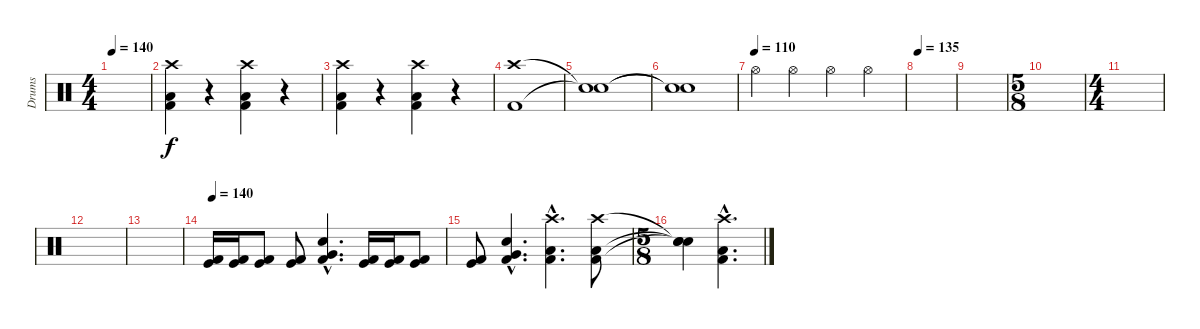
\track ("Drums" "Drums") {instrument percussion}
\staff {score}
\articulation defaults
\ts (4 4)
\tempo 140
\clef neutral
\ks c
|
("Crash high (hit)" "Low Tom (hit)" "Kick (hit) 2").4 r.4 ("Crash high (hit)" "Low Tom (hit)" "Kick (hit) 2").4 r.4 |
("Crash high (hit)" "Low Tom (hit)" "Kick (hit) 2").4 r.4 ("Crash high (hit)" "Low Tom (hit)" "Kick (hit) 2").4 r.4 |
("Crash high (hit)" "Kick (hit) 2").1 |
("Snare (hit)"{t} "Snare (hit)"{t}).1 |
("Snare (hit)"{t} "Snare (hit)"{t}).1 |
\tempo (110)
"Hi-Hat (open)".4 "Hi-Hat (open)".4 "Hi-Hat (open)".4 "Hi-Hat (open)".4 |
\tempo 135
|
|
\ts (5 8)
|
\ts (4 4)
|
|
|
\tempo 135
\tempo 140
("Kick (hit)" "Kick (hit) 2").16 ("Kick (hit)" "Kick (hit) 2").16 ("Kick (hit)" "Kick (hit) 2").8 ("Kick (hit)" "Kick (hit) 2").8 ("Very Low Tom (hit)"{hac} "Electric Snare (hit)"{hac} "Kick (hit) 2"{hac}).4{d} ("Kick (hit)" "Kick (hit) 2").16 ("Kick (hit)" "Kick (hit) 2").16 ("Kick (hit)" "Kick (hit) 2").8 |
("Kick (hit)" "Kick (hit) 2").8 ("Very Low Tom (hit)"{hac} "Electric Snare (hit)"{hac} "Kick (hit) 2"{hac}).4{d} ("Crash high (hit)"{hac} "Low Tom (hit)"{hac} "Kick (hit) 2"{hac}).4{d} ("Crash high (hit)" "Low Tom (hit)" "Kick (hit) 2").8 |
\ts (5 8)
("Snare (hit)"{t} "Snare (hit)"{t} "Snare (hit)"{t}).4 ("Crash high (hit)"{hac} "Low Tom (hit)"{hac} "Kick (hit) 2"{hac}).4{d}
